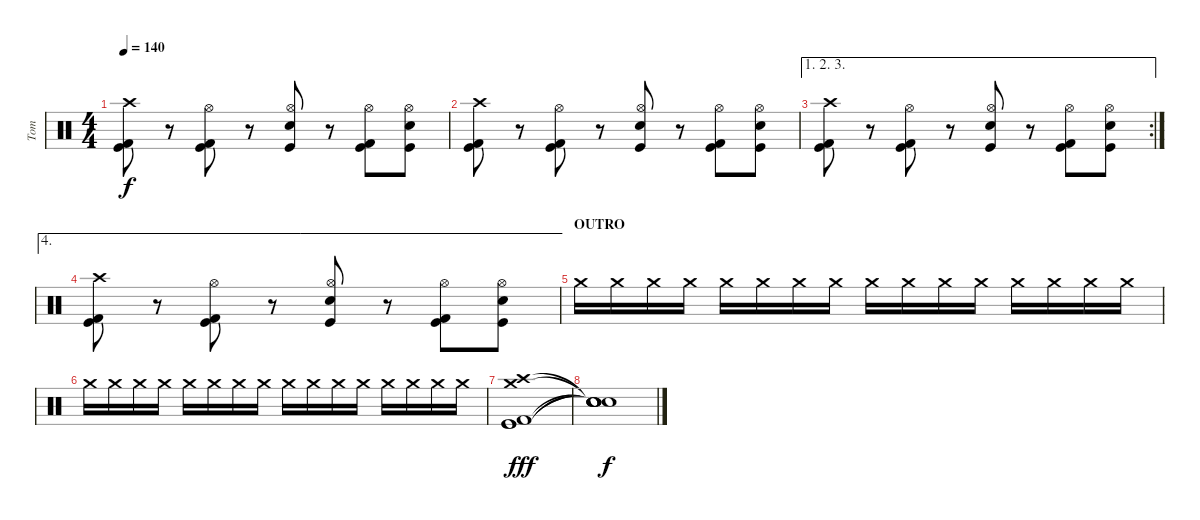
\track ("Tom" "Tom") {instrument percussion}
\staff {score}
\articulation defaults
\ts (4 4)
\tempo 140
\clef neutral
\ks c
("Crash high (hit)" "Kick (hit)" "Kick (hit) 2").8{dy f} r.8 ("Hi-Hat (open)" "Kick (hit)" "Kick (hit) 2").8 r.8 ("Hi-Hat (open)" "Kick (hit)" "Electric Snare (hit)").8 r.8 ("Hi-Hat (open)" "Kick (hit)" "Kick (hit) 2").8 ("Hi-Hat (open)" "Kick (hit)" "Electric Snare (hit)").8 |
("Crash high (hit)" "Kick (hit)" "Kick (hit) 2").8 r.8 ("Hi-Hat (open)" "Kick (hit)" "Kick (hit) 2").8 r.8 ("Hi-Hat (open)" "Kick (hit)" "Electric Snare (hit)").8 r.8 ("Hi-Hat (open)" "Kick (hit)" "Kick (hit) 2").8 ("Hi-Hat (open)" "Kick (hit)" "Electric Snare (hit)").8 |
\ae (1 2 3)
\rc 2
("Crash high (hit)" "Kick (hit)" "Kick (hit) 2").8 r.8 ("Hi-Hat (open)" "Kick (hit)" "Kick (hit) 2").8 r.8 ("Hi-Hat (open)" "Kick (hit)" "Electric Snare (hit)").8 r.8 ("Hi-Hat (open)" "Kick (hit)" "Kick (hit) 2").8 ("Hi-Hat (open)" "Kick (hit)" "Electric Snare (hit)").8 |
\ae 4
("Crash high (hit)" "Kick (hit)" "Kick (hit) 2").8 r.8 ("Hi-Hat (open)" "Kick (hit)" "Kick (hit) 2").8 r.8 ("Hi-Hat (open)" "Kick (hit)" "Electric Snare (hit)").8 r.8 ("Hi-Hat (open)" "Kick (hit)" "Kick (hit) 2").8 ("Hi-Hat (open)" "Kick (hit)" "Electric Snare (hit)").8 |
\section ("" "OUTRO")
"Crash medium (hit)".16 "Crash medium (hit)".16 "Crash medium (hit)".16 "Crash medium (hit)".16 "Crash medium (hit)".16 "Crash medium (hit)".16 "Crash medium (hit)".16 "Crash medium (hit)".16 "Crash medium (hit)".16 "Crash medium (hit)".16 "Crash medium (hit)".16 "Crash medium (hit)".16 "Crash medium (hit)".16 "Crash medium (hit)".16 "Crash medium (hit)".16 "Crash medium (hit)".16 |
"Crash medium (hit)".16 "Crash medium (hit)".16 "Crash medium (hit)".16 "Crash medium (hit)".16 "Crash medium (hit)".16 "Crash medium (hit)".16 "Crash medium (hit)".16 "Crash medium (hit)".16 "Crash medium (hit)".16 "Crash medium (hit)".16 "Crash medium (hit)".16 "Crash medium (hit)".16 "Crash medium (hit)".16 "Crash medium (hit)".16 "Crash medium (hit)".16 "Crash medium (hit)".16 |
("Crash medium (hit)" "Crash high (hit)" "Kick (hit)" "Kick (hit) 2" "Kick (hit)").1{dy fff} |
("Snare (hit)"{t} "Snare (hit)"{t} "Snare (hit)"{t} "Snare (hit)"{t} "Snare (hit)"{t}).1{dy f}
